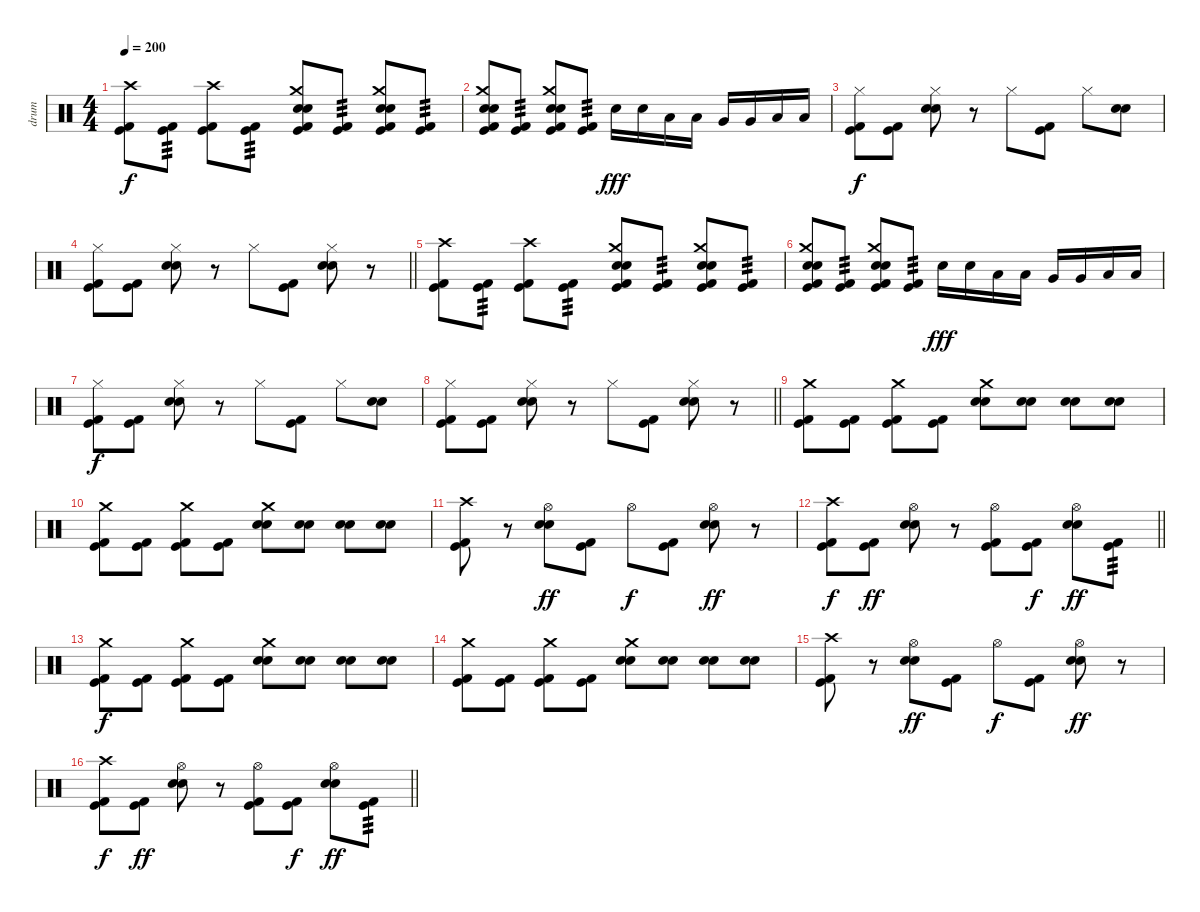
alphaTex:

\track ("drum" "drum") {instrument percussion}
\staff {score}
\articulation defaults
\ts (4 4)
\section ("" "")
\tempo 200
\clef neutral
\ks c
("Crash high (hit)" "Kick (hit)" "Kick (hit) 2").8{dy f} ("Kick (hit)" "Kick (hit) 2").8{tp 3} ("Crash high (hit)" "Kick (hit)" "Kick (hit) 2").8 ("Kick (hit)" "Kick (hit) 2").8{tp 3} ("Crash medium (hit)" "Electric Snare (hit)" "Electric Snare (hit)" "Kick (hit)" "Kick (hit) 2").8 ("Kick (hit)" "Kick (hit) 2").8{tp 3} ("Crash medium (hit)" "Electric Snare (hit)" "Electric Snare (hit)" "Kick (hit)" "Kick (hit) 2").8 ("Kick (hit)" "Kick (hit) 2").8{tp 3} |
("Crash medium (hit)" "Electric Snare (hit)" "Electric Snare (hit)" "Kick (hit)" "Kick (hit) 2").8 ("Kick (hit)" "Kick (hit) 2").8{tp 3} ("Crash medium (hit)" "Electric Snare (hit)" "Electric Snare (hit)" "Kick (hit)" "Kick (hit) 2").8 ("Kick (hit)" "Kick (hit) 2").8{tp 3} "Electric Snare (hit)".16{dy fff} "Electric Snare (hit)".16 "Low Tom (hit)".16 "Low Tom (hit)".16 "Very Low Tom (hit)".16 "Very Low Tom (hit)".16 "Low Floor Tom (hit)".16 "Low Floor Tom (hit)".16 |
("Hi-Hat (closed)" "Kick (hit)" "Kick (hit) 2").8{dy f} ("Kick (hit)" "Kick (hit) 2").8 ("Hi-Hat (closed)" "Electric Snare (hit)" "Electric Snare (hit)").8 r.8 "Hi-Hat (closed)".8 ("Kick (hit)" "Kick (hit) 2").8 "Hi-Hat (closed)".8 ("Electric Snare (hit)" "Electric Snare (hit)").8 |
\barLineRight lightlight
("Hi-Hat (closed)" "Kick (hit)" "Kick (hit) 2").8 ("Kick (hit)" "Kick (hit) 2").8 ("Hi-Hat (closed)" "Electric Snare (hit)" "Electric Snare (hit)").8 r.8 "Hi-Hat (closed)".8 ("Kick (hit)" "Kick (hit) 2").8 ("Hi-Hat (closed)" "Electric Snare (hit)" "Electric Snare (hit)").8 r.8 |
("Crash high (hit)" "Kick (hit)" "Kick (hit) 2").8 ("Kick (hit)" "Kick (hit) 2").8{tp 3} ("Crash high (hit)" "Kick (hit)" "Kick (hit) 2").8 ("Kick (hit)" "Kick (hit) 2").8{tp 3} ("Crash medium (hit)" "Electric Snare (hit)" "Electric Snare (hit)" "Kick (hit)" "Kick (hit) 2").8 ("Kick (hit)" "Kick (hit) 2").8{tp 3} ("Crash medium (hit)" "Electric Snare (hit)" "Electric Snare (hit)" "Kick (hit)" "Kick (hit) 2").8 ("Kick (hit)" "Kick (hit) 2").8{tp 3} |
("Crash medium (hit)" "Electric Snare (hit)" "Electric Snare (hit)" "Kick (hit)" "Kick (hit) 2").8 ("Kick (hit)" "Kick (hit) 2").8{tp 3} ("Crash medium (hit)" "Electric Snare (hit)" "Electric Snare (hit)" "Kick (hit)" "Kick (hit) 2").8 ("Kick (hit)" "Kick (hit) 2").8{tp 3} "Electric Snare (hit)".16{dy fff} "Electric Snare (hit)".16 "Low Tom (hit)".16 "Low Tom (hit)".16 "Very Low Tom (hit)".16 "Very Low Tom (hit)".16 "Low Floor Tom (hit)".16 "Low Floor Tom (hit)".16 |
("Hi-Hat (closed)" "Kick (hit)" "Kick (hit) 2").8{dy f} ("Kick (hit)" "Kick (hit) 2").8 ("Hi-Hat (closed)" "Electric Snare (hit)" "Electric Snare (hit)").8 r.8 "Hi-Hat (closed)".8 ("Kick (hit)" "Kick (hit) 2").8 "Hi-Hat (closed)".8 ("Electric Snare (hit)" "Electric Snare (hit)").8 |
\barLineRight lightlight
("Hi-Hat (closed)" "Kick (hit)" "Kick (hit) 2").8 ("Kick (hit)" "Kick (hit) 2").8 ("Hi-Hat (closed)" "Electric Snare (hit)" "Electric Snare (hit)").8 r.8 "Hi-Hat (closed)".8 ("Kick (hit)" "Kick (hit) 2").8 ("Hi-Hat (closed)" "Electric Snare (hit)" "Electric Snare (hit)").8 r.8 |
\section ("" "")
("Crash medium (hit)" "Kick (hit)" "Kick (hit) 2").8 ("Kick (hit)" "Kick (hit) 2").8 ("Crash medium (hit)" "Kick (hit)" "Kick (hit) 2").8 ("Kick (hit)" "Kick (hit) 2").8 ("Crash medium (hit)" "Electric Snare (hit)" "Electric Snare (hit)").8 ("Electric Snare (hit)" "Electric Snare (hit)").8 ("Electric Snare (hit)" "Electric Snare (hit)").8 ("Electric Snare (hit)" "Electric Snare (hit)").8 |
("Crash medium (hit)" "Kick (hit)" "Kick (hit) 2").8 ("Kick (hit)" "Kick (hit) 2").8 ("Crash medium (hit)" "Kick (hit)" "Kick (hit) 2").8 ("Kick (hit)" "Kick (hit) 2").8 ("Crash medium (hit)" "Electric Snare (hit)" "Electric Snare (hit)").8 ("Electric Snare (hit)" "Electric Snare (hit)").8 ("Electric Snare (hit)" "Electric Snare (hit)").8 ("Electric Snare (hit)" "Electric Snare (hit)").8 |
("Crash high (hit)" "Kick (hit)" "Kick (hit) 2").8 r.8 ("Hi-Hat (open)" "Electric Snare (hit)" "Electric Snare (hit)").8{dy ff} ("Kick (hit)" "Kick (hit) 2").8 "Hi-Hat (open)".8{dy f} ("Kick (hit)" "Kick (hit) 2").8 ("Hi-Hat (open)" "Electric Snare (hit)" "Electric Snare (hit)").8{dy ff} r.8 |
\barLineRight lightlight
("Crash high (hit)" "Kick (hit)" "Kick (hit) 2").8{dy f} ("Kick (hit)" "Kick (hit) 2").8{dy ff} ("Hi-Hat (open)" "Electric Snare (hit)" "Electric Snare (hit)").8 r.8 ("Hi-Hat (open)" "Kick (hit)" "Kick (hit) 2").8 ("Kick (hit)" "Kick (hit) 2").8{dy f} ("Hi-Hat (open)" "Electric Snare (hit)" "Electric Snare (hit)").8{dy ff} ("Kick (hit)" "Kick (hit) 2").8{tp 3} |
("Crash medium (hit)" "Kick (hit)" "Kick (hit) 2").8{dy f} ("Kick (hit)" "Kick (hit) 2").8 ("Crash medium (hit)" "Kick (hit)" "Kick (hit) 2").8 ("Kick (hit)" "Kick (hit) 2").8 ("Crash medium (hit)" "Electric Snare (hit)" "Electric Snare (hit)").8 ("Electric Snare (hit)" "Electric Snare (hit)").8 ("Electric Snare (hit)" "Electric Snare (hit)").8 ("Electric Snare (hit)" "Electric Snare (hit)").8 |
("Crash medium (hit)" "Kick (hit)" "Kick (hit) 2").8 ("Kick (hit)" "Kick (hit) 2").8 ("Crash medium (hit)" "Kick (hit)" "Kick (hit) 2").8 ("Kick (hit)" "Kick (hit) 2").8 ("Crash medium (hit)" "Electric Snare (hit)" "Electric Snare (hit)").8 ("Electric Snare (hit)" "Electric Snare (hit)").8 ("Electric Snare (hit)" "Electric Snare (hit)").8 ("Electric Snare (hit)" "Electric Snare (hit)").8 |
("Crash high (hit)" "Kick (hit)" "Kick (hit) 2").8 r.8 ("Hi-Hat (open)" "Electric Snare (hit)" "Electric Snare (hit)").8{dy ff} ("Kick (hit)" "Kick (hit) 2").8 "Hi-Hat (open)".8{dy f} ("Kick (hit)" "Kick (hit) 2").8 ("Hi-Hat (open)" "Electric Snare (hit)" "Electric Snare (hit)").8{dy ff} r.8 |
\barLineRight lightlight
("Crash high (hit)" "Kick (hit)" "Kick (hit) 2").8{dy f} ("Kick (hit)" "Kick (hit) 2").8{dy ff} ("Hi-Hat (open)" "Electric Snare (hit)" "Electric Snare (hit)").8 r.8 ("Hi-Hat (open)" "Kick (hit)" "Kick (hit) 2").8 ("Kick (hit)" "Kick (hit) 2").8{dy f} ("Hi-Hat (open)" "Electric Snare (hit)" "Electric Snare (hit)").8{dy ff} ("Kick (hit)" "Kick (hit) 2").8{tp 3}
